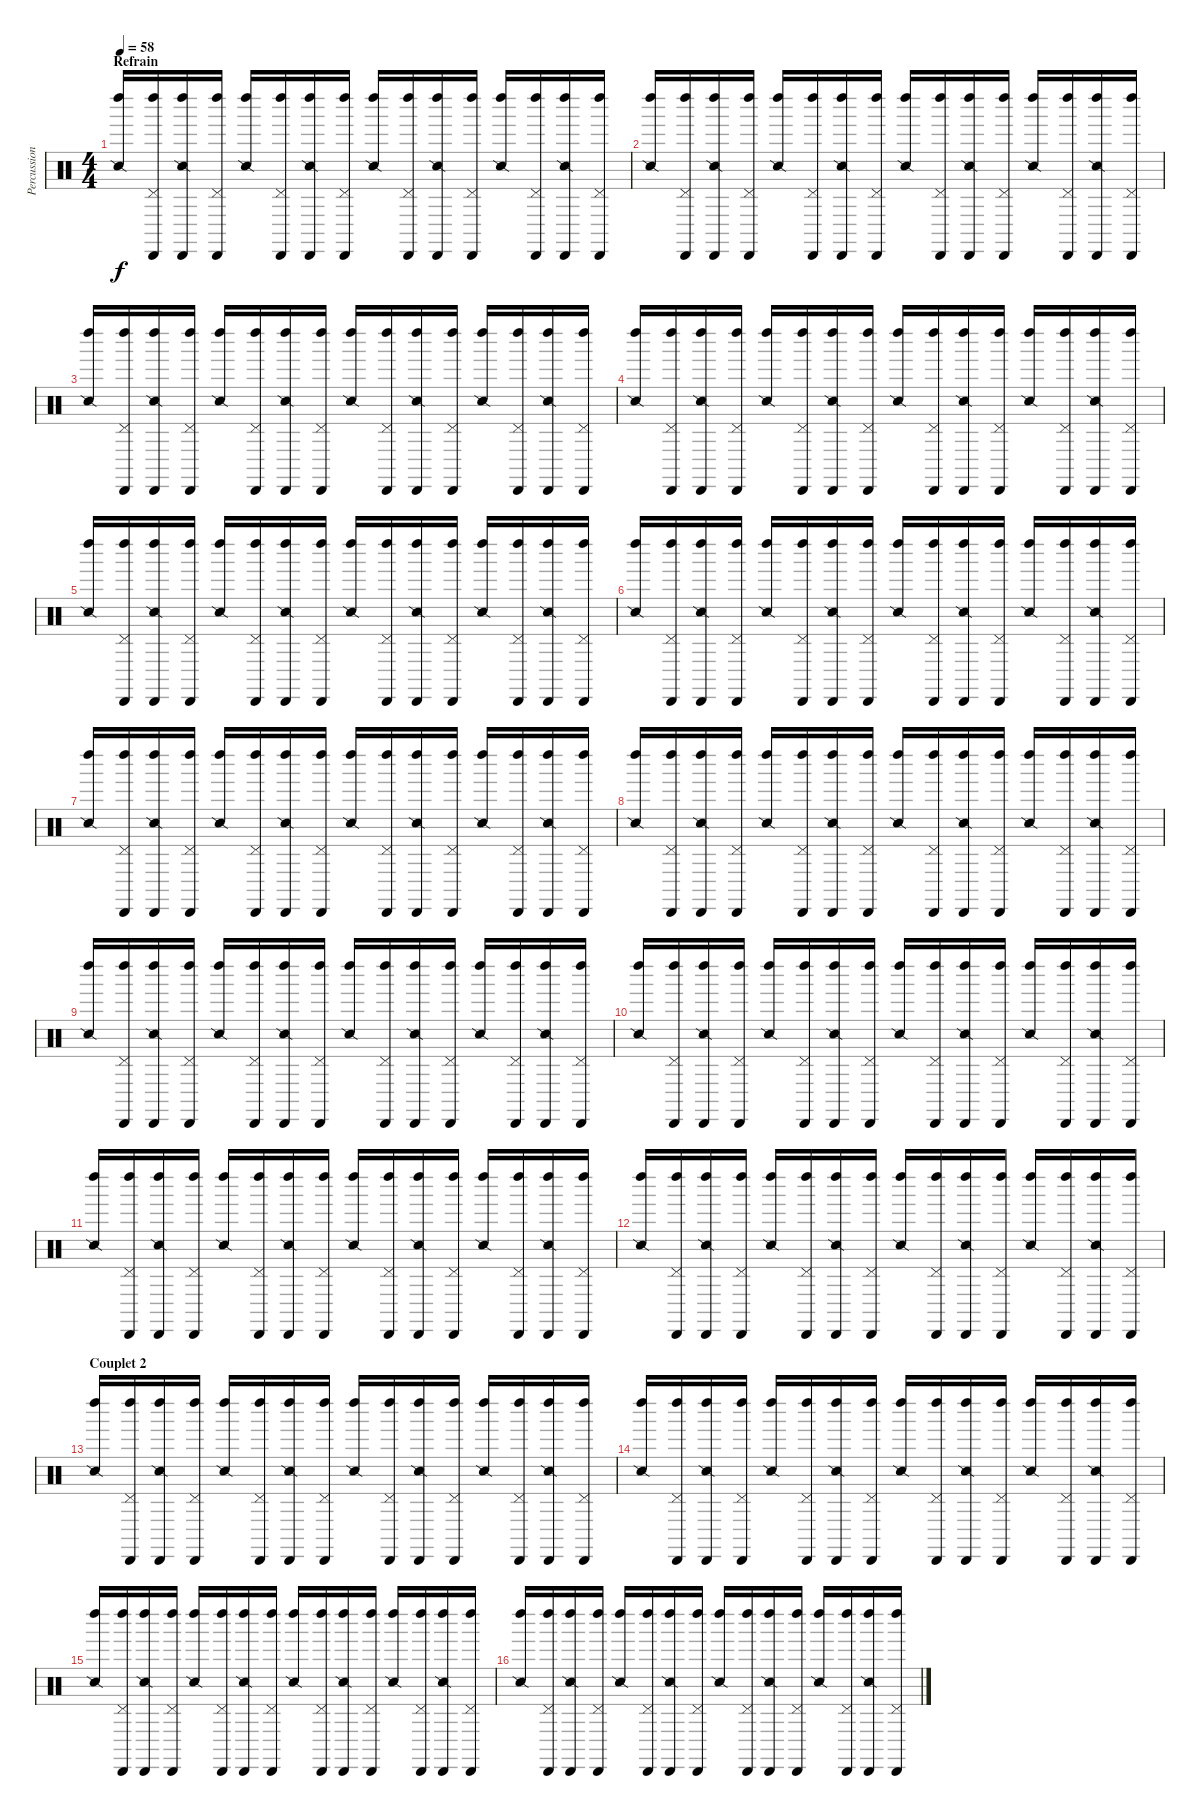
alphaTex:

\track ("Percussions" "Percussion") {instrument percussion}
\staff {score}
\articulation defaults
\ts (4 4)
\section ("" "Refrain")
\tempo 58
\clef neutral
\ks c
("Snare (side stick) 2" "Left Maraca (hit)").16{dy f} ("Cabasa (hit)" "Pedal Hi-Hat (hit)" "Left Maraca (hit)").16 ("Cabasa (hit)" "Snare (side stick) 2" "Left Maraca (hit)").16 ("Cabasa (hit)" "Pedal Hi-Hat (hit)" "Left Maraca (hit)").16 ("Snare (side stick) 2" "Left Maraca (hit)").16 ("Cabasa (hit)" "Pedal Hi-Hat (hit)" "Left Maraca (hit)").16 ("Cabasa (hit)" "Snare (side stick) 2" "Left Maraca (hit)").16 ("Cabasa (hit)" "Pedal Hi-Hat (hit)" "Left Maraca (hit)").16 ("Snare (side stick) 2" "Left Maraca (hit)").16 ("Cabasa (hit)" "Pedal Hi-Hat (hit)" "Left Maraca (hit)").16 ("Cabasa (hit)" "Snare (side stick) 2" "Left Maraca (hit)").16 ("Cabasa (hit)" "Pedal Hi-Hat (hit)" "Left Maraca (hit)").16 ("Snare (side stick) 2" "Left Maraca (hit)").16 ("Cabasa (hit)" "Pedal Hi-Hat (hit)" "Left Maraca (hit)").16 ("Cabasa (hit)" "Snare (side stick) 2" "Left Maraca (hit)").16 ("Cabasa (hit)" "Pedal Hi-Hat (hit)" "Left Maraca (hit)").16 |
("Snare (side stick) 2" "Left Maraca (hit)").16 ("Cabasa (hit)" "Pedal Hi-Hat (hit)" "Left Maraca (hit)").16 ("Cabasa (hit)" "Snare (side stick) 2" "Left Maraca (hit)").16 ("Cabasa (hit)" "Pedal Hi-Hat (hit)" "Left Maraca (hit)").16 ("Snare (side stick) 2" "Left Maraca (hit)").16 ("Cabasa (hit)" "Pedal Hi-Hat (hit)" "Left Maraca (hit)").16 ("Cabasa (hit)" "Snare (side stick) 2" "Left Maraca (hit)").16 ("Cabasa (hit)" "Pedal Hi-Hat (hit)" "Left Maraca (hit)").16 ("Snare (side stick) 2" "Left Maraca (hit)").16 ("Cabasa (hit)" "Pedal Hi-Hat (hit)" "Left Maraca (hit)").16 ("Cabasa (hit)" "Snare (side stick) 2" "Left Maraca (hit)").16 ("Cabasa (hit)" "Pedal Hi-Hat (hit)" "Left Maraca (hit)").16 ("Snare (side stick) 2" "Left Maraca (hit)").16 ("Cabasa (hit)" "Pedal Hi-Hat (hit)" "Left Maraca (hit)").16 ("Cabasa (hit)" "Snare (side stick) 2" "Left Maraca (hit)").16 ("Cabasa (hit)" "Pedal Hi-Hat (hit)" "Left Maraca (hit)").16 |
("Snare (side stick) 2" "Left Maraca (hit)").16 ("Cabasa (hit)" "Pedal Hi-Hat (hit)" "Left Maraca (hit)").16 ("Cabasa (hit)" "Snare (side stick) 2" "Left Maraca (hit)").16 ("Cabasa (hit)" "Pedal Hi-Hat (hit)" "Left Maraca (hit)").16 ("Snare (side stick) 2" "Left Maraca (hit)").16 ("Cabasa (hit)" "Pedal Hi-Hat (hit)" "Left Maraca (hit)").16 ("Cabasa (hit)" "Snare (side stick) 2" "Left Maraca (hit)").16 ("Cabasa (hit)" "Pedal Hi-Hat (hit)" "Left Maraca (hit)").16 ("Snare (side stick) 2" "Left Maraca (hit)").16 ("Cabasa (hit)" "Pedal Hi-Hat (hit)" "Left Maraca (hit)").16 ("Cabasa (hit)" "Snare (side stick) 2" "Left Maraca (hit)").16 ("Cabasa (hit)" "Pedal Hi-Hat (hit)" "Left Maraca (hit)").16 ("Snare (side stick) 2" "Left Maraca (hit)").16 ("Cabasa (hit)" "Pedal Hi-Hat (hit)" "Left Maraca (hit)").16 ("Cabasa (hit)" "Snare (side stick) 2" "Left Maraca (hit)").16 ("Cabasa (hit)" "Pedal Hi-Hat (hit)" "Left Maraca (hit)").16 |
("Snare (side stick) 2" "Left Maraca (hit)").16 ("Cabasa (hit)" "Pedal Hi-Hat (hit)" "Left Maraca (hit)").16 ("Cabasa (hit)" "Snare (side stick) 2" "Left Maraca (hit)").16 ("Cabasa (hit)" "Pedal Hi-Hat (hit)" "Left Maraca (hit)").16 ("Snare (side stick) 2" "Left Maraca (hit)").16 ("Cabasa (hit)" "Pedal Hi-Hat (hit)" "Left Maraca (hit)").16 ("Cabasa (hit)" "Snare (side stick) 2" "Left Maraca (hit)").16 ("Cabasa (hit)" "Pedal Hi-Hat (hit)" "Left Maraca (hit)").16 ("Snare (side stick) 2" "Left Maraca (hit)").16 ("Cabasa (hit)" "Pedal Hi-Hat (hit)" "Left Maraca (hit)").16 ("Cabasa (hit)" "Snare (side stick) 2" "Left Maraca (hit)").16 ("Cabasa (hit)" "Pedal Hi-Hat (hit)" "Left Maraca (hit)").16 ("Snare (side stick) 2" "Left Maraca (hit)").16 ("Cabasa (hit)" "Pedal Hi-Hat (hit)" "Left Maraca (hit)").16 ("Cabasa (hit)" "Snare (side stick) 2" "Left Maraca (hit)").16 ("Cabasa (hit)" "Pedal Hi-Hat (hit)" "Left Maraca (hit)").16 |
("Snare (side stick) 2" "Left Maraca (hit)").16 ("Cabasa (hit)" "Pedal Hi-Hat (hit)" "Left Maraca (hit)").16 ("Cabasa (hit)" "Snare (side stick) 2" "Left Maraca (hit)").16 ("Cabasa (hit)" "Pedal Hi-Hat (hit)" "Left Maraca (hit)").16 ("Snare (side stick) 2" "Left Maraca (hit)").16 ("Cabasa (hit)" "Pedal Hi-Hat (hit)" "Left Maraca (hit)").16 ("Cabasa (hit)" "Snare (side stick) 2" "Left Maraca (hit)").16 ("Cabasa (hit)" "Pedal Hi-Hat (hit)" "Left Maraca (hit)").16 ("Snare (side stick) 2" "Left Maraca (hit)").16 ("Cabasa (hit)" "Pedal Hi-Hat (hit)" "Left Maraca (hit)").16 ("Cabasa (hit)" "Snare (side stick) 2" "Left Maraca (hit)").16 ("Cabasa (hit)" "Pedal Hi-Hat (hit)" "Left Maraca (hit)").16 ("Snare (side stick) 2" "Left Maraca (hit)").16 ("Cabasa (hit)" "Pedal Hi-Hat (hit)" "Left Maraca (hit)").16 ("Cabasa (hit)" "Snare (side stick) 2" "Left Maraca (hit)").16 ("Cabasa (hit)" "Pedal Hi-Hat (hit)" "Left Maraca (hit)").16 |
("Snare (side stick) 2" "Left Maraca (hit)").16 ("Cabasa (hit)" "Pedal Hi-Hat (hit)" "Left Maraca (hit)").16 ("Cabasa (hit)" "Snare (side stick) 2" "Left Maraca (hit)").16 ("Cabasa (hit)" "Pedal Hi-Hat (hit)" "Left Maraca (hit)").16 ("Snare (side stick) 2" "Left Maraca (hit)").16 ("Cabasa (hit)" "Pedal Hi-Hat (hit)" "Left Maraca (hit)").16 ("Cabasa (hit)" "Snare (side stick) 2" "Left Maraca (hit)").16 ("Cabasa (hit)" "Pedal Hi-Hat (hit)" "Left Maraca (hit)").16 ("Snare (side stick) 2" "Left Maraca (hit)").16 ("Cabasa (hit)" "Pedal Hi-Hat (hit)" "Left Maraca (hit)").16 ("Cabasa (hit)" "Snare (side stick) 2" "Left Maraca (hit)").16 ("Cabasa (hit)" "Pedal Hi-Hat (hit)" "Left Maraca (hit)").16 ("Snare (side stick) 2" "Left Maraca (hit)").16 ("Cabasa (hit)" "Pedal Hi-Hat (hit)" "Left Maraca (hit)").16 ("Cabasa (hit)" "Snare (side stick) 2" "Left Maraca (hit)").16 ("Cabasa (hit)" "Pedal Hi-Hat (hit)" "Left Maraca (hit)").16 |
("Snare (side stick) 2" "Left Maraca (hit)").16 ("Cabasa (hit)" "Pedal Hi-Hat (hit)" "Left Maraca (hit)").16 ("Cabasa (hit)" "Snare (side stick) 2" "Left Maraca (hit)").16 ("Cabasa (hit)" "Pedal Hi-Hat (hit)" "Left Maraca (hit)").16 ("Snare (side stick) 2" "Left Maraca (hit)").16 ("Cabasa (hit)" "Pedal Hi-Hat (hit)" "Left Maraca (hit)").16 ("Cabasa (hit)" "Snare (side stick) 2" "Left Maraca (hit)").16 ("Cabasa (hit)" "Pedal Hi-Hat (hit)" "Left Maraca (hit)").16 ("Snare (side stick) 2" "Left Maraca (hit)").16 ("Cabasa (hit)" "Pedal Hi-Hat (hit)" "Left Maraca (hit)").16 ("Cabasa (hit)" "Snare (side stick) 2" "Left Maraca (hit)").16 ("Cabasa (hit)" "Pedal Hi-Hat (hit)" "Left Maraca (hit)").16 ("Snare (side stick) 2" "Left Maraca (hit)").16 ("Cabasa (hit)" "Pedal Hi-Hat (hit)" "Left Maraca (hit)").16 ("Cabasa (hit)" "Snare (side stick) 2" "Left Maraca (hit)").16 ("Cabasa (hit)" "Pedal Hi-Hat (hit)" "Left Maraca (hit)").16 |
("Snare (side stick) 2" "Left Maraca (hit)").16 ("Cabasa (hit)" "Pedal Hi-Hat (hit)" "Left Maraca (hit)").16 ("Cabasa (hit)" "Snare (side stick) 2" "Left Maraca (hit)").16 ("Cabasa (hit)" "Pedal Hi-Hat (hit)" "Left Maraca (hit)").16 ("Snare (side stick) 2" "Left Maraca (hit)").16 ("Cabasa (hit)" "Pedal Hi-Hat (hit)" "Left Maraca (hit)").16 ("Cabasa (hit)" "Snare (side stick) 2" "Left Maraca (hit)").16 ("Cabasa (hit)" "Pedal Hi-Hat (hit)" "Left Maraca (hit)").16 ("Snare (side stick) 2" "Left Maraca (hit)").16 ("Cabasa (hit)" "Pedal Hi-Hat (hit)" "Left Maraca (hit)").16 ("Cabasa (hit)" "Snare (side stick) 2" "Left Maraca (hit)").16 ("Cabasa (hit)" "Pedal Hi-Hat (hit)" "Left Maraca (hit)").16 ("Snare (side stick) 2" "Left Maraca (hit)").16 ("Cabasa (hit)" "Pedal Hi-Hat (hit)" "Left Maraca (hit)").16 ("Cabasa (hit)" "Snare (side stick) 2" "Left Maraca (hit)").16 ("Cabasa (hit)" "Pedal Hi-Hat (hit)" "Left Maraca (hit)").16 |
("Snare (side stick) 2" "Left Maraca (hit)").16 ("Cabasa (hit)" "Pedal Hi-Hat (hit)" "Left Maraca (hit)").16 ("Cabasa (hit)" "Snare (side stick) 2" "Left Maraca (hit)").16 ("Cabasa (hit)" "Pedal Hi-Hat (hit)" "Left Maraca (hit)").16 ("Snare (side stick) 2" "Left Maraca (hit)").16 ("Cabasa (hit)" "Pedal Hi-Hat (hit)" "Left Maraca (hit)").16 ("Cabasa (hit)" "Snare (side stick) 2" "Left Maraca (hit)").16 ("Cabasa (hit)" "Pedal Hi-Hat (hit)" "Left Maraca (hit)").16 ("Snare (side stick) 2" "Left Maraca (hit)").16 ("Cabasa (hit)" "Pedal Hi-Hat (hit)" "Left Maraca (hit)").16 ("Cabasa (hit)" "Snare (side stick) 2" "Left Maraca (hit)").16 ("Cabasa (hit)" "Pedal Hi-Hat (hit)" "Left Maraca (hit)").16 ("Snare (side stick) 2" "Left Maraca (hit)").16 ("Cabasa (hit)" "Pedal Hi-Hat (hit)" "Left Maraca (hit)").16 ("Cabasa (hit)" "Snare (side stick) 2" "Left Maraca (hit)").16 ("Cabasa (hit)" "Pedal Hi-Hat (hit)" "Left Maraca (hit)").16 |
("Snare (side stick) 2" "Left Maraca (hit)").16 ("Cabasa (hit)" "Pedal Hi-Hat (hit)" "Left Maraca (hit)").16 ("Cabasa (hit)" "Snare (side stick) 2" "Left Maraca (hit)").16 ("Cabasa (hit)" "Pedal Hi-Hat (hit)" "Left Maraca (hit)").16 ("Snare (side stick) 2" "Left Maraca (hit)").16 ("Cabasa (hit)" "Pedal Hi-Hat (hit)" "Left Maraca (hit)").16 ("Cabasa (hit)" "Snare (side stick) 2" "Left Maraca (hit)").16 ("Cabasa (hit)" "Pedal Hi-Hat (hit)" "Left Maraca (hit)").16 ("Snare (side stick) 2" "Left Maraca (hit)").16 ("Cabasa (hit)" "Pedal Hi-Hat (hit)" "Left Maraca (hit)").16 ("Cabasa (hit)" "Snare (side stick) 2" "Left Maraca (hit)").16 ("Cabasa (hit)" "Pedal Hi-Hat (hit)" "Left Maraca (hit)").16 ("Snare (side stick) 2" "Left Maraca (hit)").16 ("Cabasa (hit)" "Pedal Hi-Hat (hit)" "Left Maraca (hit)").16 ("Cabasa (hit)" "Snare (side stick) 2" "Left Maraca (hit)").16 ("Cabasa (hit)" "Pedal Hi-Hat (hit)" "Left Maraca (hit)").16 |
("Snare (side stick) 2" "Left Maraca (hit)").16 ("Cabasa (hit)" "Pedal Hi-Hat (hit)" "Left Maraca (hit)").16 ("Cabasa (hit)" "Snare (side stick) 2" "Left Maraca (hit)").16 ("Cabasa (hit)" "Pedal Hi-Hat (hit)" "Left Maraca (hit)").16 ("Snare (side stick) 2" "Left Maraca (hit)").16 ("Cabasa (hit)" "Pedal Hi-Hat (hit)" "Left Maraca (hit)").16 ("Cabasa (hit)" "Snare (side stick) 2" "Left Maraca (hit)").16 ("Cabasa (hit)" "Pedal Hi-Hat (hit)" "Left Maraca (hit)").16 ("Snare (side stick) 2" "Left Maraca (hit)").16 ("Cabasa (hit)" "Pedal Hi-Hat (hit)" "Left Maraca (hit)").16 ("Cabasa (hit)" "Snare (side stick) 2" "Left Maraca (hit)").16 ("Cabasa (hit)" "Pedal Hi-Hat (hit)" "Left Maraca (hit)").16 ("Snare (side stick) 2" "Left Maraca (hit)").16 ("Cabasa (hit)" "Pedal Hi-Hat (hit)" "Left Maraca (hit)").16 ("Cabasa (hit)" "Snare (side stick) 2" "Left Maraca (hit)").16 ("Cabasa (hit)" "Pedal Hi-Hat (hit)" "Left Maraca (hit)").16 |
("Snare (side stick) 2" "Left Maraca (hit)").16 ("Cabasa (hit)" "Pedal Hi-Hat (hit)" "Left Maraca (hit)").16 ("Cabasa (hit)" "Snare (side stick) 2" "Left Maraca (hit)").16 ("Cabasa (hit)" "Pedal Hi-Hat (hit)" "Left Maraca (hit)").16 ("Snare (side stick) 2" "Left Maraca (hit)").16 ("Cabasa (hit)" "Pedal Hi-Hat (hit)" "Left Maraca (hit)").16 ("Cabasa (hit)" "Snare (side stick) 2" "Left Maraca (hit)").16 ("Cabasa (hit)" "Pedal Hi-Hat (hit)" "Left Maraca (hit)").16 ("Snare (side stick) 2" "Left Maraca (hit)").16 ("Cabasa (hit)" "Pedal Hi-Hat (hit)" "Left Maraca (hit)").16 ("Cabasa (hit)" "Snare (side stick) 2" "Left Maraca (hit)").16 ("Cabasa (hit)" "Pedal Hi-Hat (hit)" "Left Maraca (hit)").16 ("Snare (side stick) 2" "Left Maraca (hit)").16 ("Cabasa (hit)" "Pedal Hi-Hat (hit)" "Left Maraca (hit)").16 ("Cabasa (hit)" "Snare (side stick) 2" "Left Maraca (hit)").16 ("Cabasa (hit)" "Pedal Hi-Hat (hit)" "Left Maraca (hit)").16 |
\section ("" "Couplet 2")
("Snare (side stick) 2" "Left Maraca (hit)").16 ("Cabasa (hit)" "Pedal Hi-Hat (hit)" "Left Maraca (hit)").16 ("Cabasa (hit)" "Snare (side stick) 2" "Left Maraca (hit)").16 ("Cabasa (hit)" "Pedal Hi-Hat (hit)" "Left Maraca (hit)").16 ("Snare (side stick) 2" "Left Maraca (hit)").16 ("Cabasa (hit)" "Pedal Hi-Hat (hit)" "Left Maraca (hit)").16 ("Cabasa (hit)" "Snare (side stick) 2" "Left Maraca (hit)").16 ("Cabasa (hit)" "Pedal Hi-Hat (hit)" "Left Maraca (hit)").16 ("Snare (side stick) 2" "Left Maraca (hit)").16 ("Cabasa (hit)" "Pedal Hi-Hat (hit)" "Left Maraca (hit)").16 ("Cabasa (hit)" "Snare (side stick) 2" "Left Maraca (hit)").16 ("Cabasa (hit)" "Pedal Hi-Hat (hit)" "Left Maraca (hit)").16 ("Snare (side stick) 2" "Left Maraca (hit)").16 ("Cabasa (hit)" "Pedal Hi-Hat (hit)" "Left Maraca (hit)").16 ("Cabasa (hit)" "Snare (side stick) 2" "Left Maraca (hit)").16 ("Cabasa (hit)" "Pedal Hi-Hat (hit)" "Left Maraca (hit)").16 |
("Snare (side stick) 2" "Left Maraca (hit)").16 ("Cabasa (hit)" "Pedal Hi-Hat (hit)" "Left Maraca (hit)").16 ("Cabasa (hit)" "Snare (side stick) 2" "Left Maraca (hit)").16 ("Cabasa (hit)" "Pedal Hi-Hat (hit)" "Left Maraca (hit)").16 ("Snare (side stick) 2" "Left Maraca (hit)").16 ("Cabasa (hit)" "Pedal Hi-Hat (hit)" "Left Maraca (hit)").16 ("Cabasa (hit)" "Snare (side stick) 2" "Left Maraca (hit)").16 ("Cabasa (hit)" "Pedal Hi-Hat (hit)" "Left Maraca (hit)").16 ("Snare (side stick) 2" "Left Maraca (hit)").16 ("Cabasa (hit)" "Pedal Hi-Hat (hit)" "Left Maraca (hit)").16 ("Cabasa (hit)" "Snare (side stick) 2" "Left Maraca (hit)").16 ("Cabasa (hit)" "Pedal Hi-Hat (hit)" "Left Maraca (hit)").16 ("Snare (side stick) 2" "Left Maraca (hit)").16 ("Cabasa (hit)" "Pedal Hi-Hat (hit)" "Left Maraca (hit)").16 ("Cabasa (hit)" "Snare (side stick) 2" "Left Maraca (hit)").16 ("Cabasa (hit)" "Pedal Hi-Hat (hit)" "Left Maraca (hit)").16 |
("Snare (side stick) 2" "Left Maraca (hit)").16 ("Cabasa (hit)" "Pedal Hi-Hat (hit)" "Left Maraca (hit)").16 ("Cabasa (hit)" "Snare (side stick) 2" "Left Maraca (hit)").16 ("Cabasa (hit)" "Pedal Hi-Hat (hit)" "Left Maraca (hit)").16 ("Snare (side stick) 2" "Left Maraca (hit)").16 ("Cabasa (hit)" "Pedal Hi-Hat (hit)" "Left Maraca (hit)").16 ("Cabasa (hit)" "Snare (side stick) 2" "Left Maraca (hit)").16 ("Cabasa (hit)" "Pedal Hi-Hat (hit)" "Left Maraca (hit)").16 ("Snare (side stick) 2" "Left Maraca (hit)").16 ("Cabasa (hit)" "Pedal Hi-Hat (hit)" "Left Maraca (hit)").16 ("Cabasa (hit)" "Snare (side stick) 2" "Left Maraca (hit)").16 ("Cabasa (hit)" "Pedal Hi-Hat (hit)" "Left Maraca (hit)").16 ("Snare (side stick) 2" "Left Maraca (hit)").16 ("Cabasa (hit)" "Pedal Hi-Hat (hit)" "Left Maraca (hit)").16 ("Cabasa (hit)" "Snare (side stick) 2" "Left Maraca (hit)").16 ("Cabasa (hit)" "Pedal Hi-Hat (hit)" "Left Maraca (hit)").16 |
("Snare (side stick) 2" "Left Maraca (hit)").16 ("Cabasa (hit)" "Pedal Hi-Hat (hit)" "Left Maraca (hit)").16 ("Cabasa (hit)" "Snare (side stick) 2" "Left Maraca (hit)").16 ("Cabasa (hit)" "Pedal Hi-Hat (hit)" "Left Maraca (hit)").16 ("Snare (side stick) 2" "Left Maraca (hit)").16 ("Cabasa (hit)" "Pedal Hi-Hat (hit)" "Left Maraca (hit)").16 ("Cabasa (hit)" "Snare (side stick) 2" "Left Maraca (hit)").16 ("Cabasa (hit)" "Pedal Hi-Hat (hit)" "Left Maraca (hit)").16 ("Snare (side stick) 2" "Left Maraca (hit)").16 ("Cabasa (hit)" "Pedal Hi-Hat (hit)" "Left Maraca (hit)").16 ("Cabasa (hit)" "Snare (side stick) 2" "Left Maraca (hit)").16 ("Cabasa (hit)" "Pedal Hi-Hat (hit)" "Left Maraca (hit)").16 ("Snare (side stick) 2" "Left Maraca (hit)").16 ("Cabasa (hit)" "Pedal Hi-Hat (hit)" "Left Maraca (hit)").16 ("Cabasa (hit)" "Snare (side stick) 2" "Left Maraca (hit)").16 ("Cabasa (hit)" "Pedal Hi-Hat (hit)" "Left Maraca (hit)").16
